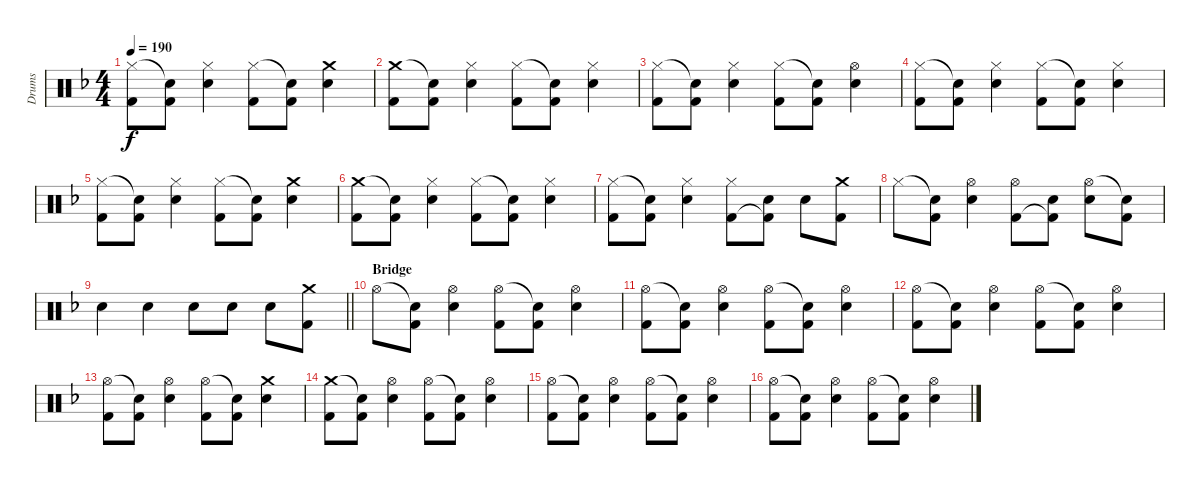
\track ("Drums" "Drums") {instrument percussion}
\staff {score}
\articulation defaults
\ts (4 4)
\tempo 190
\clef neutral
\ks dminor
("Hi-Hat (closed)" "Kick (hit) 2").8{dy f} ("Snare (hit)"{t} "Kick (hit) 2").8 ("Hi-Hat (closed)" "Electric Snare (hit)").4 ("Hi-Hat (closed)" "Kick (hit) 2").8 ("Snare (hit)"{t} "Kick (hit) 2").8 ("Crash medium (hit)" "Electric Snare (hit)").4 |
("Crash medium (hit)" "Kick (hit) 2").8 ("Snare (hit)"{t} "Kick (hit) 2").8 ("Hi-Hat (closed)" "Electric Snare (hit)").4 ("Hi-Hat (closed)" "Kick (hit) 2").8 ("Snare (hit)"{t} "Kick (hit) 2").8 ("Hi-Hat (closed)" "Electric Snare (hit)").4 |
("Hi-Hat (closed)" "Kick (hit) 2").8 ("Snare (hit)"{t} "Kick (hit) 2").8 ("Hi-Hat (closed)" "Electric Snare (hit)").4 ("Hi-Hat (closed)" "Kick (hit) 2").8 ("Snare (hit)"{t} "Kick (hit) 2").8 ("Hi-Hat (open)" "Electric Snare (hit)").4 |
("Hi-Hat (closed)" "Kick (hit) 2").8 ("Snare (hit)"{t} "Kick (hit) 2").8 ("Hi-Hat (closed)" "Electric Snare (hit)").4 ("Hi-Hat (closed)" "Kick (hit) 2").8 ("Snare (hit)"{t} "Kick (hit) 2").8 ("Hi-Hat (closed)" "Electric Snare (hit)").4 |
("Hi-Hat (closed)" "Kick (hit) 2").8 ("Snare (hit)"{t} "Kick (hit) 2").8 ("Hi-Hat (closed)" "Electric Snare (hit)").4 ("Hi-Hat (closed)" "Kick (hit) 2").8 ("Snare (hit)"{t} "Kick (hit) 2").8 ("Crash medium (hit)" "Electric Snare (hit)").4 |
("Crash medium (hit)" "Kick (hit) 2").8 ("Snare (hit)"{t} "Kick (hit) 2").8 ("Hi-Hat (closed)" "Electric Snare (hit)").4 ("Hi-Hat (closed)" "Kick (hit) 2").8 ("Snare (hit)"{t} "Kick (hit) 2").8 ("Hi-Hat (closed)" "Electric Snare (hit)").4 |
("Hi-Hat (closed)" "Kick (hit) 2").8 ("Snare (hit)"{t} "Kick (hit) 2").8 ("Hi-Hat (closed)" "Electric Snare (hit)").4 ("Hi-Hat (closed)" "Kick (hit) 2").8 ("Electric Snare (hit)" "Kick (hit) 2"{t}).8 "Electric Snare (hit)".8 ("Crash medium (hit)" "Kick (hit) 2").8 |
"Hi-Hat (closed)".8 ("Snare (hit)"{t} "Kick (hit) 2").8 ("Hi-Hat (open)" "Electric Snare (hit)").4 ("Hi-Hat (open)" "Kick (hit) 2").8 ("Electric Snare (hit)" "Kick (hit) 2"{t}).8 ("Hi-Hat (open)" "Electric Snare (hit)").8 ("Snare (hit)"{t} "Kick (hit) 2").8 |
\barLineRight lightlight "Electric Snare (hit)".4 "Electric Snare (hit)".4 "Electric Snare (hit)".8 "Electric Snare (hit)".8 "Electric Snare (hit)".8
("Crash medium (hit)" "Kick (hit) 2").8 |
\section ("" "Bridge")
"Hi-Hat (open)".8 ("Snare (hit)"{t} "Kick (hit) 2").8 ("Hi-Hat (open)" "Electric Snare (hit)").4 ("Hi-Hat (open)" "Kick (hit) 2").8 ("Snare (hit)"{t} "Kick (hit) 2").8 ("Hi-Hat (open)" "Electric Snare (hit)").4 |
("Hi-Hat (open)" "Kick (hit) 2").8 ("Snare (hit)"{t} "Kick (hit) 2").8 ("Hi-Hat (open)" "Electric Snare (hit)").4 ("Hi-Hat (open)" "Kick (hit) 2").8 ("Snare (hit)"{t} "Kick (hit) 2").8 ("Hi-Hat (open)" "Electric Snare (hit)").4 |
("Hi-Hat (open)" "Kick (hit) 2").8 ("Snare (hit)"{t} "Kick (hit) 2").8 ("Hi-Hat (open)" "Electric Snare (hit)").4 ("Hi-Hat (open)" "Kick (hit) 2").8 ("Snare (hit)"{t} "Kick (hit) 2").8 ("Hi-Hat (open)" "Electric Snare (hit)").4 |
("Hi-Hat (open)" "Kick (hit) 2").8 ("Snare (hit)"{t} "Kick (hit) 2").8 ("Hi-Hat (open)" "Electric Snare (hit)").4 ("Hi-Hat (open)" "Kick (hit) 2").8 ("Snare (hit)"{t} "Kick (hit) 2").8 ("Crash medium (hit)" "Electric Snare (hit)").4 |
("Crash medium (hit)" "Kick (hit) 2").8 ("Snare (hit)"{t} "Kick (hit) 2").8 ("Hi-Hat (open)" "Electric Snare (hit)").4 ("Hi-Hat (open)" "Kick (hit) 2").8 ("Snare (hit)"{t} "Kick (hit) 2").8 ("Hi-Hat (open)" "Electric Snare (hit)").4 |
("Hi-Hat (open)" "Kick (hit) 2").8 ("Snare (hit)"{t} "Kick (hit) 2").8 ("Hi-Hat (open)" "Electric Snare (hit)").4 ("Hi-Hat (open)" "Kick (hit) 2").8 ("Snare (hit)"{t} "Kick (hit) 2").8 ("Hi-Hat (open)" "Electric Snare (hit)").4 |
("Hi-Hat (open)" "Kick (hit) 2").8 ("Snare (hit)"{t} "Kick (hit) 2").8 ("Hi-Hat (open)" "Electric Snare (hit)").4 ("Hi-Hat (open)" "Kick (hit) 2").8 ("Snare (hit)"{t} "Kick (hit) 2").8 ("Hi-Hat (open)" "Electric Snare (hit)").4
